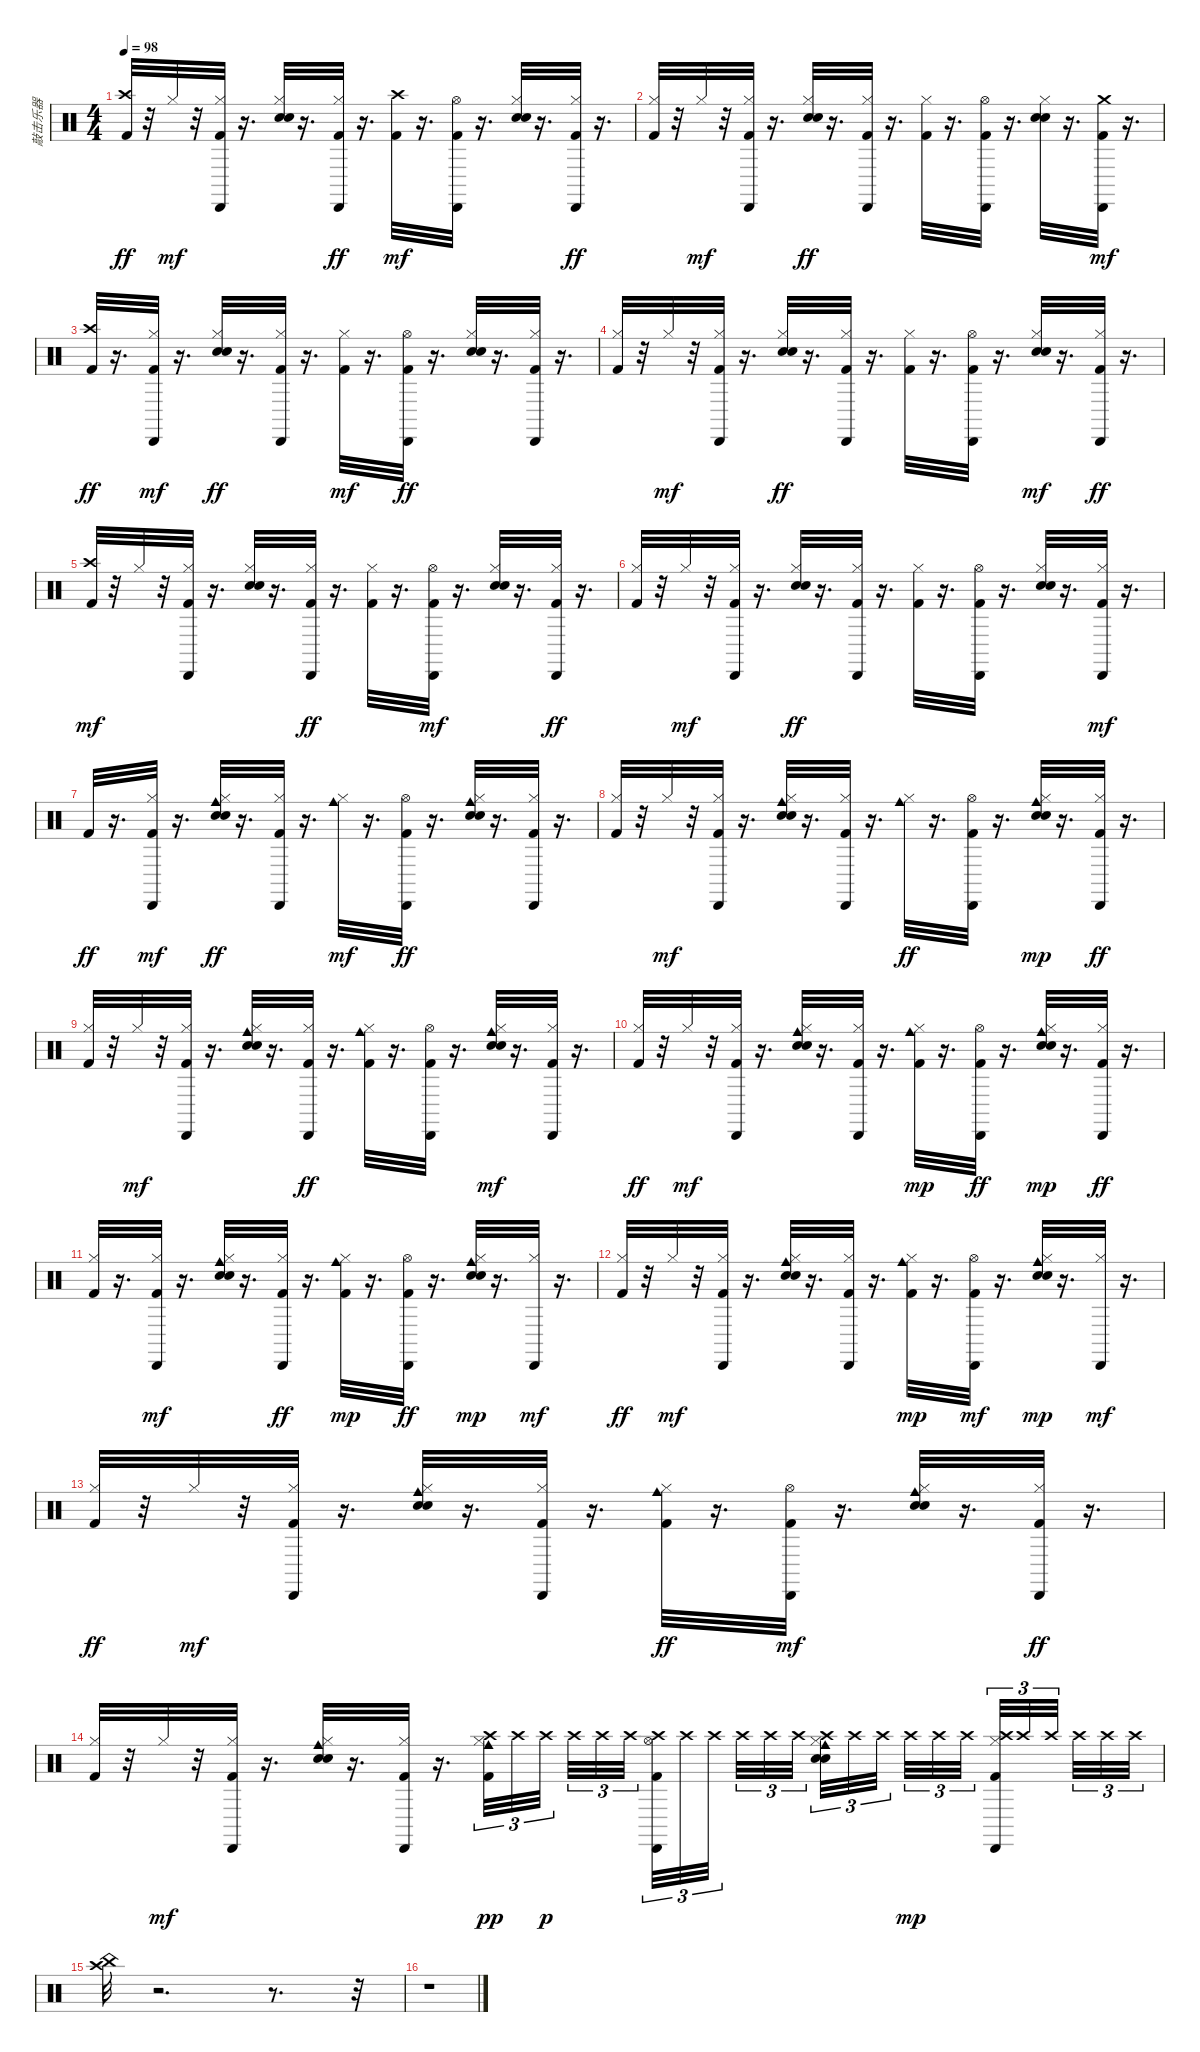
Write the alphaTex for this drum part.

\track ("敲击乐器" "敲击乐器") {instrument percussion}
\staff {score}
\articulation defaults
\ts (4 4)
\tempo 98
\clef neutral
\ks c
("Crash high (hit)" "Kick (hit) 2").32{dy ff} r.32 "Hi-Hat (closed)".32{dy mf} r.32 ("Kick (hit) 2" "Hi-Hat (closed)" "Cabasa (hit)").32 r.16{d} ("Hand Clap (hit)" "Snare (hit) 2" "Hi-Hat (closed)").32 r.16{d} ("Hi-Hat (closed)" "Cabasa (hit)" "Kick (hit) 2").32{dy ff} r.16{d} ("Kick (hit) 2" "Crash high (hit)").32{dy mf} r.16{d} ("Hi-Hat (open)" "Kick (hit) 2" "Cabasa (hit)").32 r.16{d} ("Hand Clap (hit)" "Snare (hit) 2" "Hi-Hat (closed)").32 r.16{d} ("Cabasa (hit)" "Kick (hit) 2" "Hi-Hat (closed)").32{dy ff} r.16{d} |
("Kick (hit) 2" "Hi-Hat (closed)").32 r.32 "Hi-Hat (closed)".32{dy mf} r.32 ("Cabasa (hit)" "Kick (hit) 2" "Hi-Hat (closed)").32 r.16{d} ("Hi-Hat (closed)" "Hand Clap (hit)" "Snare (hit) 2").32{dy ff} r.16{d} ("Cabasa (hit)" "Hi-Hat (closed)" "Kick (hit) 2").32 r.16{d} ("Kick (hit) 2" "Hi-Hat (closed)").32 r.16{d} ("Kick (hit) 2" "Cabasa (hit)" "Hi-Hat (open)").32 r.16{d} ("Hi-Hat (closed)" "Hand Clap (hit)" "Snare (hit) 2").32 r.16{d} ("Kick (hit) 2" "Crash medium (hit)" "Cabasa (hit)").32{dy mf} r.16{d} |
("Crash high (hit)" "Kick (hit) 2").32{dy ff} r.16{d} ("Cabasa (hit)" "Hi-Hat (closed)" "Kick (hit) 2").32{dy mf} r.16{d} ("Hi-Hat (closed)" "Snare (hit) 2" "Hand Clap (hit)").32{dy ff} r.16{d} ("Cabasa (hit)" "Kick (hit) 2" "Hi-Hat (closed)").32 r.16{d} ("Kick (hit) 2" "Hi-Hat (closed)").32{dy mf} r.16{d} ("Cabasa (hit)" "Kick (hit) 2" "Hi-Hat (open)").32{dy ff} r.16{d} ("Hi-Hat (closed)" "Snare (hit) 2" "Hand Clap (hit)").32 r.16{d} ("Cabasa (hit)" "Hi-Hat (closed)" "Kick (hit) 2").32 r.16{d} |
("Kick (hit) 2" "Hi-Hat (closed)").32 r.32 "Hi-Hat (closed)".32{dy mf} r.32 ("Cabasa (hit)" "Kick (hit) 2" "Hi-Hat (closed)").32 r.16{d} ("Hi-Hat (closed)" "Hand Clap (hit)" "Snare (hit) 2").32{dy ff} r.16{d} ("Cabasa (hit)" "Hi-Hat (closed)" "Kick (hit) 2").32 r.16{d} ("Kick (hit) 2" "Hi-Hat (closed)").32 r.16{d} ("Cabasa (hit)" "Kick (hit) 2" "Hi-Hat (open)").32 r.16{d} ("Snare (hit) 2" "Hand Clap (hit)" "Hi-Hat (closed)").32{dy mf} r.16{d} ("Kick (hit) 2" "Cabasa (hit)" "Hi-Hat (closed)").32{dy ff} r.16{d} |
("Kick (hit) 2" "Crash high (hit)").32{dy mf} r.32 "Hi-Hat (closed)".32 r.32 ("Kick (hit) 2" "Hi-Hat (closed)" "Cabasa (hit)").32 r.16{d} ("Hand Clap (hit)" "Snare (hit) 2" "Hi-Hat (closed)").32 r.16{d} ("Hi-Hat (closed)" "Cabasa (hit)" "Kick (hit) 2").32{dy ff} r.16{d} ("Kick (hit) 2" "Hi-Hat (closed)").32 r.16{d} ("Hi-Hat (open)" "Kick (hit) 2" "Cabasa (hit)").32{dy mf} r.16{d} ("Hand Clap (hit)" "Snare (hit) 2" "Hi-Hat (closed)").32 r.16{d} ("Cabasa (hit)" "Kick (hit) 2" "Hi-Hat (closed)").32{dy ff} r.16{d} |
("Kick (hit) 2" "Hi-Hat (closed)").32 r.32 "Hi-Hat (closed)".32{dy mf} r.32 ("Cabasa (hit)" "Kick (hit) 2" "Hi-Hat (closed)").32 r.16{d} ("Hi-Hat (closed)" "Hand Clap (hit)" "Snare (hit) 2").32{dy ff} r.16{d} ("Cabasa (hit)" "Hi-Hat (closed)" "Kick (hit) 2").32 r.16{d} ("Kick (hit) 2" "Hi-Hat (closed)").32 r.16{d} ("Kick (hit) 2" "Cabasa (hit)" "Hi-Hat (open)").32 r.16{d} ("Hi-Hat (closed)" "Hand Clap (hit)" "Snare (hit) 2").32 r.16{d} ("Kick (hit) 2" "Hi-Hat (closed)" "Cabasa (hit)").32{dy mf} r.16{d} |
"Kick (hit) 2".32{dy ff} r.16{d} ("Cabasa (hit)" "Hi-Hat (closed)" "Kick (hit) 2").32{dy mf} r.16{d} ("Cowbell medium (hit)" "Hi-Hat (closed)" "Snare (hit) 2" "Hand Clap (hit)").32{dy ff} r.16{d} ("Cabasa (hit)" "Kick (hit) 2" "Hi-Hat (closed)").32 r.16{d} ("Cowbell medium (hit)" "Hi-Hat (closed)").32{dy mf} r.16{d} ("Cabasa (hit)" "Kick (hit) 2" "Hi-Hat (open)").32{dy ff} r.16{d} ("Cowbell medium (hit)" "Hi-Hat (closed)" "Snare (hit) 2" "Hand Clap (hit)").32 r.16{d} ("Cabasa (hit)" "Hi-Hat (closed)" "Kick (hit) 2").32 r.16{d} |
("Kick (hit) 2" "Hi-Hat (closed)").32 r.32 "Hi-Hat (closed)".32{dy mf} r.32 ("Cabasa (hit)" "Kick (hit) 2" "Hi-Hat (closed)").32 r.16{d} ("Hi-Hat (closed)" "Hand Clap (hit)" "Snare (hit) 2" "Cowbell medium (hit)").32 r.16{d} ("Cabasa (hit)" "Kick (hit) 2" "Hi-Hat (closed)").32 r.16{d} ("Cowbell medium (hit)" "Hi-Hat (closed)").32{dy ff} r.16{d} ("Cabasa (hit)" "Kick (hit) 2" "Hi-Hat (open)").32 r.16{d} ("Hi-Hat (closed)" "Snare (hit) 2" "Hand Clap (hit)" "Cowbell medium (hit)").32{dy mp} r.16{d} ("Cabasa (hit)" "Kick (hit) 2" "Hi-Hat (closed)").32{dy ff} r.16{d} |
("Kick (hit) 2" "Hi-Hat (closed)").32 r.32 "Hi-Hat (closed)".32{dy mf} r.32 ("Hi-Hat (closed)" "Cabasa (hit)" "Kick (hit) 2").32 r.16{d} ("Hand Clap (hit)" "Snare (hit) 2" "Hi-Hat (closed)" "Cowbell medium (hit)").32 r.16{d} ("Cabasa (hit)" "Hi-Hat (closed)" "Kick (hit) 2").32{dy ff} r.16{d} ("Hi-Hat (closed)" "Cowbell medium (hit)" "Kick (hit) 2").32 r.16{d} ("Cabasa (hit)" "Kick (hit) 2" "Hi-Hat (open)").32 r.16{d} ("Snare (hit) 2" "Hand Clap (hit)" "Cowbell medium (hit)" "Hi-Hat (closed)").32{dy mf} r.16{d} ("Kick (hit) 2" "Hi-Hat (closed)" "Cabasa (hit)").32 r.16{d} |
("Hi-Hat (closed)" "Kick (hit) 2").32{dy ff} r.32 "Hi-Hat (closed)".32{dy mf} r.32 ("Kick (hit) 2" "Hi-Hat (closed)" "Cabasa (hit)").32 r.16{d} ("Hi-Hat (closed)" "Hand Clap (hit)" "Snare (hit) 2" "Cowbell medium (hit)").32 r.16{d} ("Hi-Hat (closed)" "Kick (hit) 2" "Cabasa (hit)").32 r.16{d} ("Hi-Hat (closed)" "Kick (hit) 2" "Cowbell medium (hit)").32{dy mp} r.16{d} ("Kick (hit) 2" "Cabasa (hit)" "Hi-Hat (open)").32{dy ff} r.16{d} ("Snare (hit) 2" "Hi-Hat (closed)" "Hand Clap (hit)" "Cowbell medium (hit)").32{dy mp} r.16{d} ("Hi-Hat (closed)" "Cabasa (hit)" "Kick (hit) 2").32{dy ff} r.16{d} |
("Hi-Hat (closed)" "Kick (hit) 2").32 r.16{d} ("Cabasa (hit)" "Hi-Hat (closed)" "Kick (hit) 2").32{dy mf} r.16{d} ("Hi-Hat (closed)" "Snare (hit) 2" "Hand Clap (hit)" "Cowbell medium (hit)").32 r.16{d} ("Cabasa (hit)" "Hi-Hat (closed)" "Kick (hit) 2").32{dy ff} r.16{d} ("Hi-Hat (closed)" "Kick (hit) 2" "Cowbell medium (hit)").32{dy mp} r.16{d} ("Cabasa (hit)" "Kick (hit) 2" "Hi-Hat (open)").32{dy ff} r.16{d} ("Snare (hit) 2" "Hi-Hat (closed)" "Hand Clap (hit)" "Cowbell medium (hit)").32{dy mp} r.16{d} ("Cabasa (hit)" "Hi-Hat (closed)").32{dy mf} r.16{d} |
("Kick (hit) 2" "Hi-Hat (closed)").32{dy ff} r.32 "Hi-Hat (closed)".32{dy mf} r.32 ("Kick (hit) 2" "Hi-Hat (closed)" "Cabasa (hit)").32 r.16{d} ("Hi-Hat (closed)" "Hand Clap (hit)" "Snare (hit) 2" "Cowbell medium (hit)").32 r.16{d} ("Hi-Hat (closed)" "Kick (hit) 2" "Cabasa (hit)").32 r.16{d} ("Kick (hit) 2" "Hi-Hat (closed)" "Cowbell medium (hit)").32{dy mp} r.16{d} ("Kick (hit) 2" "Hi-Hat (open)" "Cabasa (hit)").32{dy mf} r.16{d} ("Hand Clap (hit)" "Snare (hit) 2" "Hi-Hat (closed)" "Cowbell medium (hit)").32{dy mp} r.16{d} ("Hi-Hat (closed)" "Cabasa (hit)").32{dy mf} r.16{d} |
("Hi-Hat (closed)" "Kick (hit) 2").32{dy ff} r.32 "Hi-Hat (closed)".32{dy mf} r.32 ("Cabasa (hit)" "Kick (hit) 2" "Hi-Hat (closed)").32 r.16{d} ("Hand Clap (hit)" "Snare (hit) 2" "Hi-Hat (closed)" "Cowbell medium (hit)").32 r.16{d} ("Kick (hit) 2" "Cabasa (hit)" "Hi-Hat (closed)").32 r.16{d} ("Kick (hit) 2" "Cowbell medium (hit)" "Hi-Hat (closed)").32{dy ff} r.16{d} ("Hi-Hat (open)" "Cabasa (hit)" "Kick (hit) 2").32{dy mf} r.16{d} ("Snare (hit) 2" "Hand Clap (hit)" "Cowbell medium (hit)" "Hi-Hat (closed)").32 r.16{d} ("Hi-Hat (closed)" "Cabasa (hit)" "Kick (hit) 2").32{dy ff} r.16{d} |
("Kick (hit) 2" "Hi-Hat (closed)").32 r.32 "Hi-Hat (closed)".32{dy mf} r.32 ("Hi-Hat (closed)" "Cabasa (hit)" "Kick (hit) 2").32 r.16{d} ("Hi-Hat (closed)" "Hand Clap (hit)" "Snare (hit) 2" "Cowbell medium (hit)").32 r.16{d} ("Kick (hit) 2" "Cabasa (hit)" "Hi-Hat (closed)").32 r.16{d} ("Kick (hit) 2" "Hi-Hat (closed)" "Cowbell medium (hit)" "Crash high (hit)").32{tu (3 2) dy pp} "Crash high (hit)".32{tu (3 2)} "Crash high (hit)".32{tu (3 2) dy p beam splitsecondary} "Crash high (hit)".32{tu (3 2)} "Crash high (hit)".32{tu (3 2)} "Crash high (hit)".32{tu (3 2) beam splitsecondary} ("Cabasa (hit)" "Hi-Hat (open)" "Kick (hit) 2" "Crash high (hit)").32{tu (3 2)} "Crash high (hit)".32{tu (3 2)} "Crash high (hit)".32{tu (3 2) beam splitsecondary} "Crash high (hit)".32{tu (3 2)} "Crash high (hit)".32{tu (3 2)} "Crash high (hit)".32{tu (3 2)} ("Snare (hit) 2" "Hi-Hat (closed)" "Hand Clap (hit)" "Cowbell medium (hit)" "Crash high (hit)").32{tu (3 2)} "Crash high (hit)".32{tu (3 2)} "Crash high (hit)".32{tu (3 2) beam splitsecondary} "Crash high (hit)".32{tu (3 2) dy mp} "Crash high (hit)".32{tu (3 2)} "Crash high (hit)".32{tu (3 2) beam splitsecondary} ("Cabasa (hit)" "Kick (hit) 2" "Hi-Hat (closed)" "Crash high (hit)").32{tu (3 2)} "Crash high (hit)".32{tu (3 2)} "Crash high (hit)".32{tu (3 2) beam splitsecondary} "Crash high (hit)".32{tu (3 2)} "Crash high (hit)".32{tu (3 2)} "Crash high (hit)".32{tu (3 2)} |
("China (hit)" "Crash high (hit)").32 r.2{d} r.8{d} r.32 |
r.1
